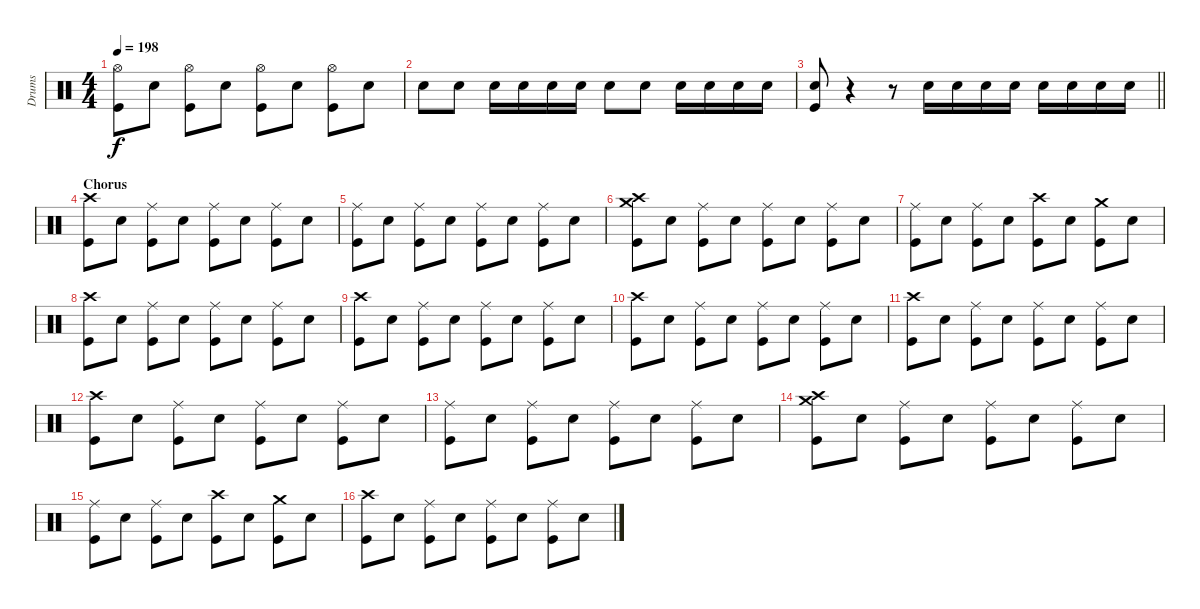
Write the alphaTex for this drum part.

\track ("Drums" "Drums") {instrument percussion}
\staff {score}
\articulation defaults
\ts (4 4)
\tempo 198
\clef neutral
\ks c
("Hi-Hat (open)" "Kick (hit)").8{dy f} "Electric Snare (hit)".8 ("Hi-Hat (open)" "Kick (hit)").8 "Electric Snare (hit)".8 ("Hi-Hat (open)" "Kick (hit)").8 "Electric Snare (hit)".8 ("Hi-Hat (open)" "Kick (hit)").8 "Electric Snare (hit)".8 |
"Electric Snare (hit)".8 "Electric Snare (hit)".8 "Electric Snare (hit)".16 "Electric Snare (hit)".16 "Electric Snare (hit)".16 "Electric Snare (hit)".16 "Electric Snare (hit)".8 "Electric Snare (hit)".8 "Electric Snare (hit)".16 "Electric Snare (hit)".16 "Electric Snare (hit)".16 "Electric Snare (hit)".16 |
\barLineRight lightlight
("Electric Snare (hit)" "Kick (hit)").8 r.4 r.8 "Electric Snare (hit)".16 "Electric Snare (hit)".16 "Electric Snare (hit)".16 "Electric Snare (hit)".16 "Electric Snare (hit)".16 "Electric Snare (hit)".16 "Electric Snare (hit)".16 "Electric Snare (hit)".16 |
\section ("" "Chorus")
("Crash high (hit)" "Kick (hit)").8 "Electric Snare (hit)".8 ("Ride (middle)" "Kick (hit)").8 "Electric Snare (hit)".8 ("Ride (middle)" "Kick (hit)").8 "Electric Snare (hit)".8 ("Ride (middle)" "Kick (hit)").8 "Electric Snare (hit)".8 |
("Ride (middle)" "Kick (hit)").8 "Electric Snare (hit)".8 ("Ride (middle)" "Kick (hit)").8 "Electric Snare (hit)".8 ("Ride (middle)" "Kick (hit)").8 "Electric Snare (hit)".8 ("Ride (middle)" "Kick (hit)").8 "Electric Snare (hit)".8 |
("Crash high (hit)" "Crash medium (hit)" "Kick (hit)").8 "Electric Snare (hit)".8 ("Ride (middle)" "Kick (hit)").8 "Electric Snare (hit)".8 ("Ride (middle)" "Kick (hit)").8 "Electric Snare (hit)".8 ("Ride (middle)" "Kick (hit)").8 "Electric Snare (hit)".8 |
("Ride (middle)" "Kick (hit)").8 "Electric Snare (hit)".8 ("Ride (middle)" "Kick (hit)").8 "Electric Snare (hit)".8 ("Crash high (hit)" "Kick (hit)").8 "Electric Snare (hit)".8 ("Crash medium (hit)" "Kick (hit)").8 "Electric Snare (hit)".8 |
("Crash high (hit)" "Kick (hit)").8 "Electric Snare (hit)".8 ("Ride (middle)" "Kick (hit)").8 "Electric Snare (hit)".8 ("Ride (middle)" "Kick (hit)").8 "Electric Snare (hit)".8 ("Ride (middle)" "Kick (hit)").8 "Electric Snare (hit)".8 |
("Crash high (hit)" "Kick (hit)").8 "Electric Snare (hit)".8 ("Ride (middle)" "Kick (hit)").8 "Electric Snare (hit)".8 ("Ride (middle)" "Kick (hit)").8 "Electric Snare (hit)".8 ("Ride (middle)" "Kick (hit)").8 "Electric Snare (hit)".8 |
("Crash high (hit)" "Kick (hit)").8 "Electric Snare (hit)".8 ("Ride (middle)" "Kick (hit)").8 "Electric Snare (hit)".8 ("Ride (middle)" "Kick (hit)").8 "Electric Snare (hit)".8 ("Ride (middle)" "Kick (hit)").8 "Electric Snare (hit)".8 |
("Crash high (hit)" "Kick (hit)").8 "Electric Snare (hit)".8 ("Ride (middle)" "Kick (hit)").8 "Electric Snare (hit)".8 ("Ride (middle)" "Kick (hit)").8 "Electric Snare (hit)".8 ("Ride (middle)" "Kick (hit)").8 "Electric Snare (hit)".8 |
("Crash high (hit)" "Kick (hit)").8 "Electric Snare (hit)".8 ("Ride (middle)" "Kick (hit)").8 "Electric Snare (hit)".8 ("Ride (middle)" "Kick (hit)").8 "Electric Snare (hit)".8 ("Ride (middle)" "Kick (hit)").8 "Electric Snare (hit)".8 |
("Ride (middle)" "Kick (hit)").8 "Electric Snare (hit)".8 ("Ride (middle)" "Kick (hit)").8 "Electric Snare (hit)".8 ("Ride (middle)" "Kick (hit)").8 "Electric Snare (hit)".8 ("Ride (middle)" "Kick (hit)").8 "Electric Snare (hit)".8 |
("Crash high (hit)" "Crash medium (hit)" "Kick (hit)").8 "Electric Snare (hit)".8 ("Ride (middle)" "Kick (hit)").8 "Electric Snare (hit)".8 ("Ride (middle)" "Kick (hit)").8 "Electric Snare (hit)".8 ("Ride (middle)" "Kick (hit)").8 "Electric Snare (hit)".8 |
("Ride (middle)" "Kick (hit)").8 "Electric Snare (hit)".8 ("Ride (middle)" "Kick (hit)").8 "Electric Snare (hit)".8 ("Crash high (hit)" "Kick (hit)").8 "Electric Snare (hit)".8 ("Crash medium (hit)" "Kick (hit)").8 "Electric Snare (hit)".8 |
("Crash high (hit)" "Kick (hit)").8 "Electric Snare (hit)".8 ("Ride (middle)" "Kick (hit)").8 "Electric Snare (hit)".8 ("Ride (middle)" "Kick (hit)").8 "Electric Snare (hit)".8 ("Ride (middle)" "Kick (hit)").8 "Electric Snare (hit)".8
